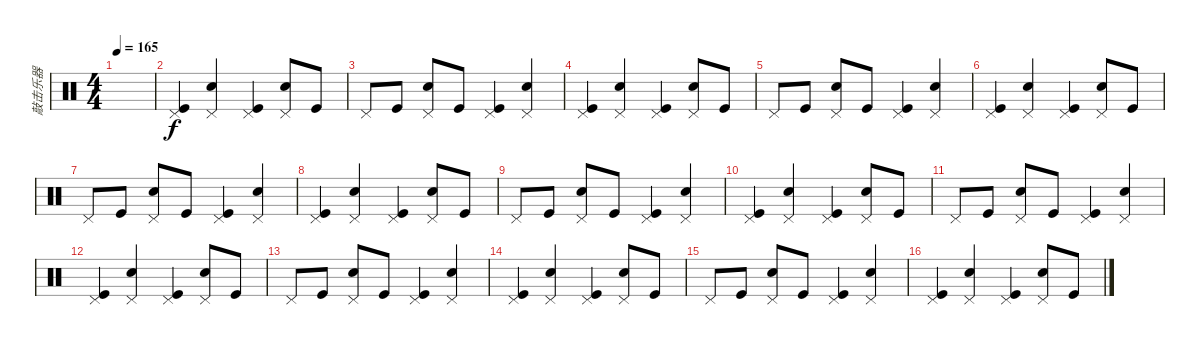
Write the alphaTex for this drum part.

\track ("敲击乐器" "敲击乐器") {instrument percussion}
\staff {score}
\articulation defaults
\ts (4 4)
\tempo 165
\clef neutral
\ks c
|
("Pedal Hi-Hat (hit)" "Kick (hit)").4 ("Pedal Hi-Hat (hit)" "Snare (hit) 2").4 ("Pedal Hi-Hat (hit)" "Kick (hit)").4 ("Pedal Hi-Hat (hit)" "Snare (hit) 2").8 "Kick (hit)".8 |
"Pedal Hi-Hat (hit)".8 "Kick (hit)".8 ("Pedal Hi-Hat (hit)" "Snare (hit) 2").8 "Kick (hit)".8 ("Kick (hit)" "Pedal Hi-Hat (hit)").4 ("Snare (hit) 2" "Pedal Hi-Hat (hit)").4 |
("Pedal Hi-Hat (hit)" "Kick (hit)").4 ("Pedal Hi-Hat (hit)" "Snare (hit) 2").4 ("Pedal Hi-Hat (hit)" "Kick (hit)").4 ("Pedal Hi-Hat (hit)" "Snare (hit) 2").8 "Kick (hit)".8 |
"Pedal Hi-Hat (hit)".8 "Kick (hit)".8 ("Pedal Hi-Hat (hit)" "Snare (hit) 2").8 "Kick (hit)".8 ("Kick (hit)" "Pedal Hi-Hat (hit)").4 ("Snare (hit) 2" "Pedal Hi-Hat (hit)").4 |
("Pedal Hi-Hat (hit)" "Kick (hit)").4 ("Pedal Hi-Hat (hit)" "Snare (hit) 2").4 ("Pedal Hi-Hat (hit)" "Kick (hit)").4 ("Pedal Hi-Hat (hit)" "Snare (hit) 2").8 "Kick (hit)".8 |
"Pedal Hi-Hat (hit)".8 "Kick (hit)".8 ("Pedal Hi-Hat (hit)" "Snare (hit) 2").8 "Kick (hit)".8 ("Kick (hit)" "Pedal Hi-Hat (hit)").4 ("Snare (hit) 2" "Pedal Hi-Hat (hit)").4 |
("Pedal Hi-Hat (hit)" "Kick (hit)").4 ("Pedal Hi-Hat (hit)" "Snare (hit) 2").4 ("Pedal Hi-Hat (hit)" "Kick (hit)").4 ("Pedal Hi-Hat (hit)" "Snare (hit) 2").8 "Kick (hit)".8 |
"Pedal Hi-Hat (hit)".8 "Kick (hit)".8 ("Pedal Hi-Hat (hit)" "Snare (hit) 2").8 "Kick (hit)".8 ("Kick (hit)" "Pedal Hi-Hat (hit)").4 ("Snare (hit) 2" "Pedal Hi-Hat (hit)").4 |
("Pedal Hi-Hat (hit)" "Kick (hit)").4 ("Pedal Hi-Hat (hit)" "Snare (hit) 2").4 ("Pedal Hi-Hat (hit)" "Kick (hit)").4 ("Pedal Hi-Hat (hit)" "Snare (hit) 2").8 "Kick (hit)".8 |
"Pedal Hi-Hat (hit)".8 "Kick (hit)".8 ("Pedal Hi-Hat (hit)" "Snare (hit) 2").8 "Kick (hit)".8 ("Kick (hit)" "Pedal Hi-Hat (hit)").4 ("Snare (hit) 2" "Pedal Hi-Hat (hit)").4 |
("Pedal Hi-Hat (hit)" "Kick (hit)").4 ("Pedal Hi-Hat (hit)" "Snare (hit) 2").4 ("Pedal Hi-Hat (hit)" "Kick (hit)").4 ("Pedal Hi-Hat (hit)" "Snare (hit) 2").8 "Kick (hit)".8 |
"Pedal Hi-Hat (hit)".8 "Kick (hit)".8 ("Pedal Hi-Hat (hit)" "Snare (hit) 2").8 "Kick (hit)".8 ("Kick (hit)" "Pedal Hi-Hat (hit)").4 ("Snare (hit) 2" "Pedal Hi-Hat (hit)").4 |
("Pedal Hi-Hat (hit)" "Kick (hit)").4 ("Pedal Hi-Hat (hit)" "Snare (hit) 2").4 ("Pedal Hi-Hat (hit)" "Kick (hit)").4 ("Pedal Hi-Hat (hit)" "Snare (hit) 2").8 "Kick (hit)".8 |
"Pedal Hi-Hat (hit)".8 "Kick (hit)".8 ("Pedal Hi-Hat (hit)" "Snare (hit) 2").8 "Kick (hit)".8 ("Kick (hit)" "Pedal Hi-Hat (hit)").4 ("Snare (hit) 2" "Pedal Hi-Hat (hit)").4 |
("Pedal Hi-Hat (hit)" "Kick (hit)").4 ("Pedal Hi-Hat (hit)" "Snare (hit) 2").4 ("Pedal Hi-Hat (hit)" "Kick (hit)").4 ("Pedal Hi-Hat (hit)" "Snare (hit) 2").8 "Kick (hit)".8
